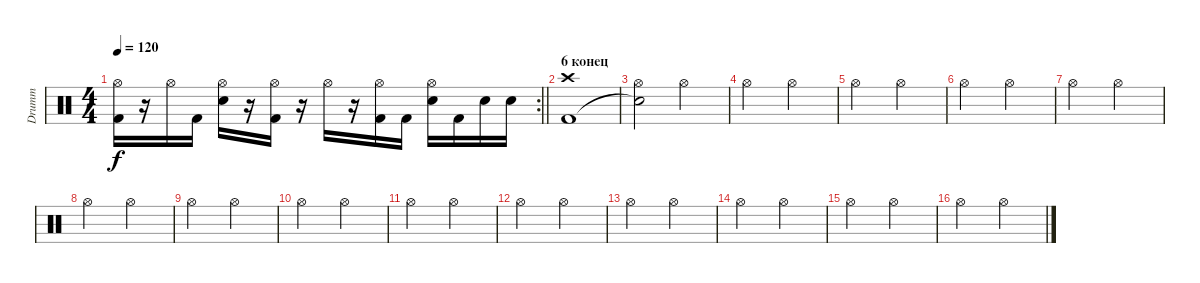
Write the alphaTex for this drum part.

\track ("Drumm" "Drumm") {instrument percussion}
\staff {score}
\articulation defaults
\rc 2
\ts (4 4)
\tempo 120
\clef neutral
\barLineRight lightlight
\ks c
("Hi-Hat (open)" "Kick (hit) 2").16{dy f} r.16 "Hi-Hat (open)".16 "Kick (hit) 2".16 ("Hi-Hat (open)" "Electric Snare (hit)").16 r.16 ("Hi-Hat (open)" "Kick (hit) 2").16 r.16 "Hi-Hat (open)".16 r.16 ("Hi-Hat (open)" "Kick (hit) 2").16 "Kick (hit) 2".16 ("Hi-Hat (open)" "Electric Snare (hit)").16 "Kick (hit) 2".16 "Electric Snare (hit)".16 "Electric Snare (hit)".16 |
\section ("" "6 конец")
("Crash high (hit)" "Kick (hit) 2").1 |
("Hi-Hat (open)" "Snare (hit)"{t}).2 "Hi-Hat (open)".2 |
"Hi-Hat (open)".2 "Hi-Hat (open)".2 |
"Hi-Hat (open)".2 "Hi-Hat (open)".2 |
"Hi-Hat (open)".2 "Hi-Hat (open)".2 |
"Hi-Hat (open)".2 "Hi-Hat (open)".2 |
"Hi-Hat (open)".2 "Hi-Hat (open)".2 |
"Hi-Hat (open)".2 "Hi-Hat (open)".2 |
"Hi-Hat (open)".2 "Hi-Hat (open)".2 |
"Hi-Hat (open)".2 "Hi-Hat (open)".2 |
"Hi-Hat (open)".2 "Hi-Hat (open)".2 |
"Hi-Hat (open)".2 "Hi-Hat (open)".2 |
"Hi-Hat (open)".2 "Hi-Hat (open)".2 |
"Hi-Hat (open)".2 "Hi-Hat (open)".2 |
"Hi-Hat (open)".2 "Hi-Hat (open)".2
